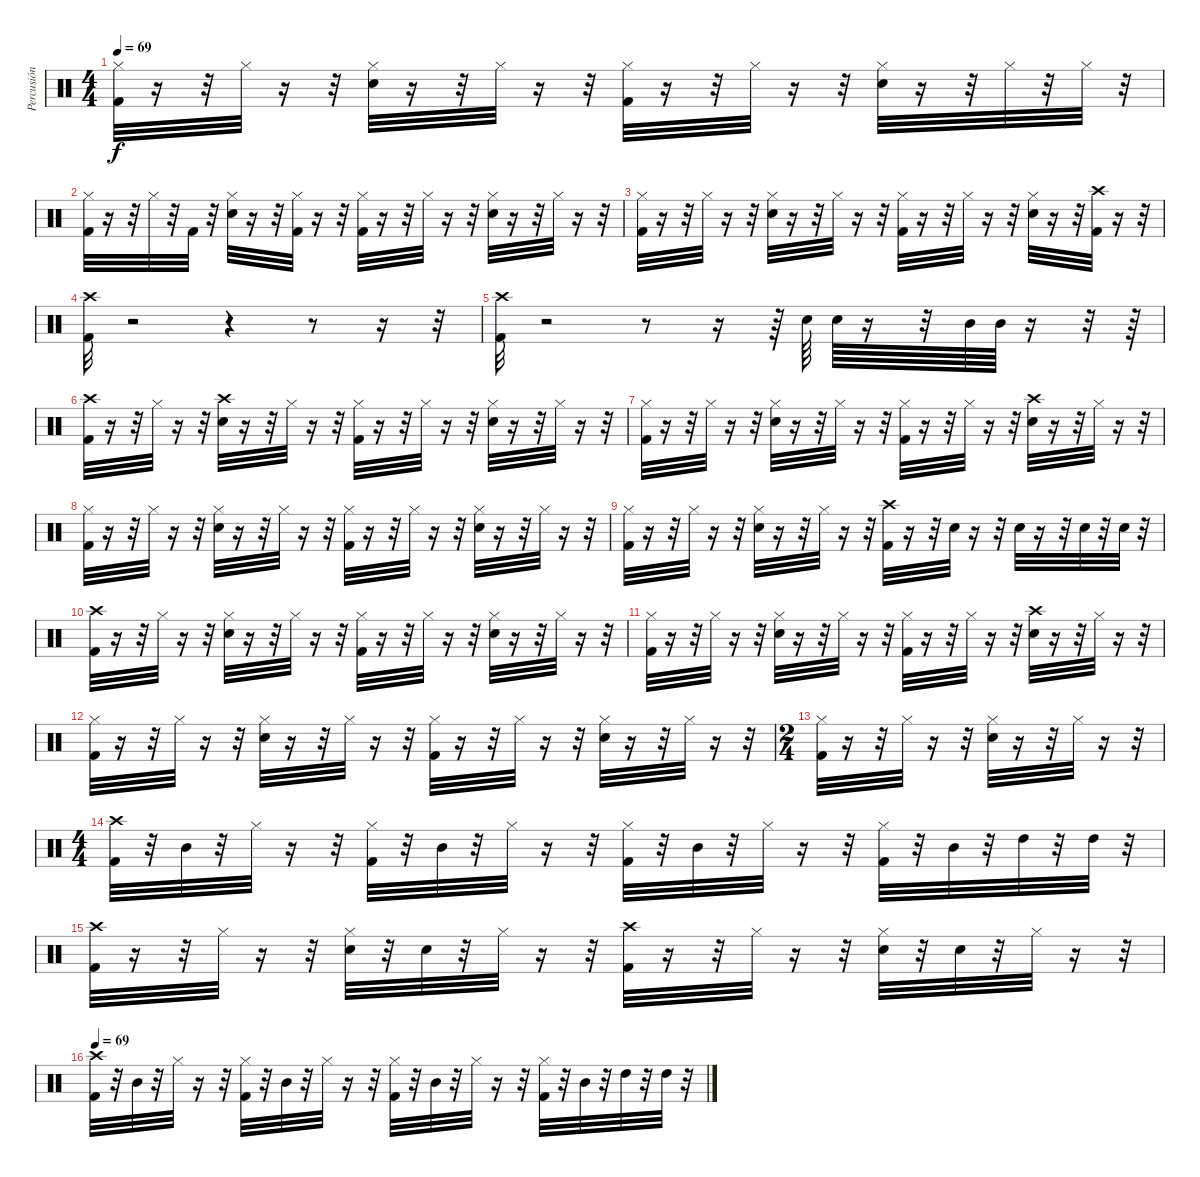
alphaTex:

\track ("Percusión" "Percusión") {instrument percussion}
\staff {score}
\articulation defaults
\ts (4 4)
\tempo 69
\clef neutral
\ks c
("Hi-Hat (closed)" "Kick (hit) 2").32{dy f} r.16 r.32 "Hi-Hat (closed)".32 r.16 r.32 ("Snare (hit) 2" "Hi-Hat (closed)").32 r.16 r.32 "Hi-Hat (closed)".32 r.16 r.32 ("Kick (hit) 2" "Hi-Hat (closed)").32 r.16 r.32 "Hi-Hat (closed)".32 r.16 r.32 ("Hi-Hat (closed)" "Snare (hit) 2").32 r.16 r.32 "Hi-Hat (closed)".32 r.32 "Hi-Hat (closed)".32 r.32 |
("Hi-Hat (closed)" "Kick (hit) 2").32 r.16 r.32 "Hi-Hat (closed)".32 r.32 "Kick (hit) 2".32 r.32 ("Snare (hit) 2" "Hi-Hat (closed)").32 r.16 r.32 ("Kick (hit) 2" "Hi-Hat (closed)").32 r.16 r.32 ("Hi-Hat (closed)" "Kick (hit) 2").32 r.16 r.32 "Hi-Hat (closed)".32 r.16 r.32 ("Snare (hit) 2" "Hi-Hat (closed)").32 r.16 r.32 "Hi-Hat (closed)".32 r.16 r.32 |
("Hi-Hat (closed)" "Kick (hit) 2").32 r.16 r.32 "Hi-Hat (closed)".32 r.16 r.32 ("Snare (hit) 2" "Hi-Hat (closed)").32 r.16 r.32 "Hi-Hat (closed)".32 r.16 r.32 ("Hi-Hat (closed)" "Kick (hit) 2").32 r.16 r.32 "Hi-Hat (closed)".32 r.16 r.32 ("Snare (hit) 2" "Hi-Hat (closed)").32 r.16 r.32 ("Crash high (hit)" "Kick (hit) 2").32 r.16 r.32 |
("Kick (hit) 2" "Crash high (hit)").32 r.2 r.4 r.8 r.16 r.32 |
("Kick (hit) 2" "Crash high (hit)").32 r.2 r.8 r.16 r.64 "Snare (hit) 2".64 "Snare (hit) 2".64 r.16 r.32 "Mid Tom (hit)".64 "Mid Tom (hit)".64 r.16 r.32 r.64 |
("Kick (hit) 2" "Crash high (hit)").32 r.16 r.32 "Hi-Hat (closed)".32 r.16 r.32 ("Crash high (hit)" "Snare (hit) 2").32 r.16 r.32 "Hi-Hat (closed)".32 r.16 r.32 ("Hi-Hat (closed)" "Kick (hit) 2").32 r.16 r.32 "Hi-Hat (closed)".32 r.16 r.32 ("Snare (hit) 2" "Hi-Hat (closed)").32 r.16 r.32 "Hi-Hat (closed)".32 r.16 r.32 |
("Kick (hit) 2" "Hi-Hat (closed)").32 r.16 r.32 "Hi-Hat (closed)".32 r.16 r.32 ("Snare (hit) 2" "Hi-Hat (closed)").32 r.16 r.32 "Hi-Hat (closed)".32 r.16 r.32 ("Hi-Hat (closed)" "Kick (hit) 2").32 r.16 r.32 "Hi-Hat (closed)".32 r.16 r.32 ("Crash high (hit)" "Snare (hit) 2").32 r.16 r.32 "Hi-Hat (closed)".32 r.16 r.32 |
("Hi-Hat (closed)" "Kick (hit) 2").32 r.16 r.32 "Hi-Hat (closed)".32 r.16 r.32 ("Snare (hit) 2" "Hi-Hat (closed)").32 r.16 r.32 "Hi-Hat (closed)".32 r.16 r.32 ("Hi-Hat (closed)" "Kick (hit) 2").32 r.16 r.32 "Hi-Hat (closed)".32 r.16 r.32 ("Snare (hit) 2" "Hi-Hat (closed)").32 r.16 r.32 "Hi-Hat (closed)".32 r.16 r.32 |
("Kick (hit) 2" "Hi-Hat (closed)").32 r.16 r.32 "Hi-Hat (closed)".32 r.16 r.32 ("Snare (hit) 2" "Hi-Hat (closed)").32 r.16 r.32 "Hi-Hat (closed)".32 r.16 r.32 ("Crash high (hit)" "Kick (hit) 2").32 r.16 r.32 "Snare (hit) 2".32 r.16 r.32 "Snare (hit) 2".32 r.16 r.32 "Snare (hit) 2".32 r.32 "Snare (hit) 2".32 r.32 |
("Kick (hit) 2" "Crash high (hit)").32 r.16 r.32 "Hi-Hat (closed)".32 r.16 r.32 ("Snare (hit) 2" "Hi-Hat (closed)").32 r.16 r.32 "Hi-Hat (closed)".32 r.16 r.32 ("Hi-Hat (closed)" "Kick (hit) 2").32 r.16 r.32 "Hi-Hat (closed)".32 r.16 r.32 ("Snare (hit) 2" "Hi-Hat (closed)").32 r.16 r.32 "Hi-Hat (closed)".32 r.16 r.32 |
("Kick (hit) 2" "Hi-Hat (closed)").32 r.16 r.32 "Hi-Hat (closed)".32 r.16 r.32 ("Snare (hit) 2" "Hi-Hat (closed)").32 r.16 r.32 "Hi-Hat (closed)".32 r.16 r.32 ("Hi-Hat (closed)" "Kick (hit) 2").32 r.16 r.32 "Hi-Hat (closed)".32 r.16 r.32 ("Crash high (hit)" "Snare (hit) 2").32 r.16 r.32 "Hi-Hat (closed)".32 r.16 r.32 |
("Kick (hit) 2" "Hi-Hat (closed)").32 r.16 r.32 "Hi-Hat (closed)".32 r.16 r.32 ("Snare (hit) 2" "Hi-Hat (closed)").32 r.16 r.32 "Hi-Hat (closed)".32 r.16 r.32 ("Kick (hit) 2" "Hi-Hat (closed)").32 r.16 r.32 "Hi-Hat (closed)".32 r.16 r.32 ("Snare (hit) 2" "Hi-Hat (closed)").32 r.16 r.32 "Hi-Hat (closed)".32 r.16 r.32 |
\ts (2 4)
("Kick (hit) 2" "Hi-Hat (closed)").32 r.16 r.32 "Hi-Hat (closed)".32 r.16 r.32 ("Snare (hit) 2" "Hi-Hat (closed)").32 r.16 r.32 "Hi-Hat (closed)".32 r.16 r.32 |
\ts (4 4)
("Kick (hit) 2" "Crash high (hit)").32 r.32 "Mid Tom (hit)".32 r.32 "Hi-Hat (closed)".32 r.16 r.32 ("Hi-Hat (closed)" "Kick (hit) 2").32 r.32 "Mid Tom (hit)".32 r.32 "Hi-Hat (closed)".32 r.16 r.32 ("Hi-Hat (closed)" "Kick (hit) 2").32 r.32 "Mid Tom (hit)".32 r.32 "Hi-Hat (closed)".32 r.16 r.32 ("Hi-Hat (closed)" "Kick (hit) 2").32 r.32 "Mid Tom (hit)".32 r.32 "High Tom (hit)".32 r.32 "High Tom (hit)".32 r.32 |
("Kick (hit) 2" "Crash high (hit)").32 r.16 r.32 "Hi-Hat (closed)".32 r.16 r.32 ("Snare (hit) 2" "Hi-Hat (closed)").32 r.32 "Snare (hit) 2".32 r.32 "Hi-Hat (closed)".32 r.16 r.32 ("Crash high (hit)" "Kick (hit) 2").32 r.16 r.32 "Hi-Hat (closed)".32 r.16 r.32 ("Snare (hit) 2" "Hi-Hat (closed)").32 r.32 "Snare (hit) 2".32 r.32 "Hi-Hat (closed)".32 r.16 r.32 |
\tempo 69
("Kick (hit) 2" "Crash high (hit)").32 r.32 "Mid Tom (hit)".32 r.32 "Hi-Hat (closed)".32 r.16 r.32 ("Hi-Hat (closed)" "Kick (hit) 2").32 r.32 "Mid Tom (hit)".32 r.32 "Hi-Hat (closed)".32 r.16 r.32 ("Hi-Hat (closed)" "Kick (hit) 2").32 r.32 "Mid Tom (hit)".32 r.32 "Hi-Hat (closed)".32 r.16 r.32 ("Hi-Hat (closed)" "Kick (hit) 2").32 r.32 "Mid Tom (hit)".32 r.32 "High Tom (hit)".32 r.32 "High Tom (hit)".32 r.32
